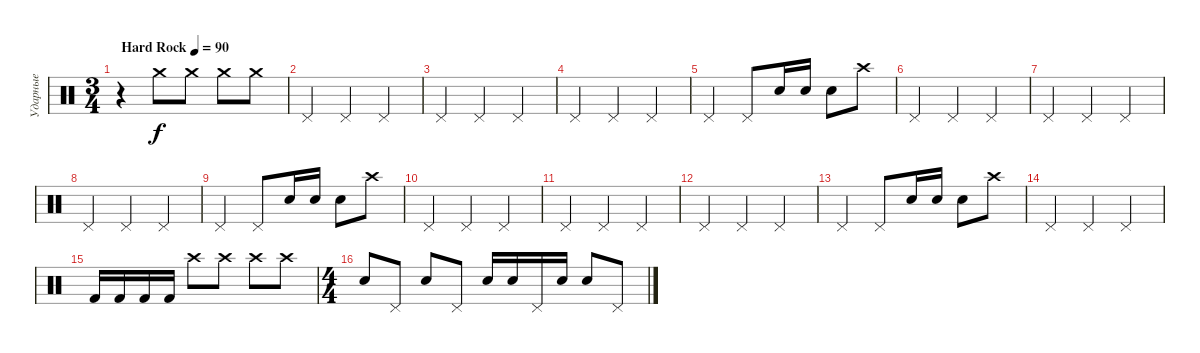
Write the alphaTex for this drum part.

\track ("Ударные" "Ударные") {instrument percussion}
\staff {score}
\articulation defaults
\ts (3 4)
\tempo (90 "Hard Rock")
\clef neutral
\ks c
r.4{dy f} "Crash medium (hit)".8 "Crash medium (hit)".8 "Crash medium (hit)".8 "Crash medium (hit)".8 |
"Pedal Hi-Hat (hit)".4 "Pedal Hi-Hat (hit)".4 "Pedal Hi-Hat (hit)".4 |
"Pedal Hi-Hat (hit)".4 "Pedal Hi-Hat (hit)".4 "Pedal Hi-Hat (hit)".4 |
"Pedal Hi-Hat (hit)".4 "Pedal Hi-Hat (hit)".4 "Pedal Hi-Hat (hit)".4 |
"Pedal Hi-Hat (hit)".4 "Pedal Hi-Hat (hit)".8 "Snare (hit) 2".16 "Snare (hit) 2".16 "Snare (hit) 2".8 "Crash high (hit)".8 |
"Pedal Hi-Hat (hit)".4 "Pedal Hi-Hat (hit)".4 "Pedal Hi-Hat (hit)".4 |
"Pedal Hi-Hat (hit)".4 "Pedal Hi-Hat (hit)".4 "Pedal Hi-Hat (hit)".4 |
"Pedal Hi-Hat (hit)".4 "Pedal Hi-Hat (hit)".4 "Pedal Hi-Hat (hit)".4 |
"Pedal Hi-Hat (hit)".4 "Pedal Hi-Hat (hit)".8 "Snare (hit) 2".16 "Snare (hit) 2".16 "Snare (hit) 2".8 "Crash high (hit)".8 |
"Pedal Hi-Hat (hit)".4 "Pedal Hi-Hat (hit)".4 "Pedal Hi-Hat (hit)".4 |
"Pedal Hi-Hat (hit)".4 "Pedal Hi-Hat (hit)".4 "Pedal Hi-Hat (hit)".4 |
"Pedal Hi-Hat (hit)".4 "Pedal Hi-Hat (hit)".4 "Pedal Hi-Hat (hit)".4 |
"Pedal Hi-Hat (hit)".4 "Pedal Hi-Hat (hit)".8 "Snare (hit) 2".16 "Snare (hit) 2".16 "Snare (hit) 2".8 "Crash high (hit)".8 |
"Pedal Hi-Hat (hit)".4 "Pedal Hi-Hat (hit)".4 "Pedal Hi-Hat (hit)".4 |
"Kick (hit) 2".16 "Kick (hit) 2".16 "Kick (hit) 2".16 "Kick (hit) 2".16 "Crash high (hit)".8 "Crash high (hit)".8 "Crash high (hit)".8 "Crash high (hit)".8 |
\ts (4 4)
"Snare (hit) 2".8 "Pedal Hi-Hat (hit)".8 "Snare (hit) 2".8 "Pedal Hi-Hat (hit)".8 "Snare (hit) 2".16 "Snare (hit) 2".16 "Pedal Hi-Hat (hit)".16 "Snare (hit) 2".16 "Snare (hit) 2".8 "Pedal Hi-Hat (hit)".8
